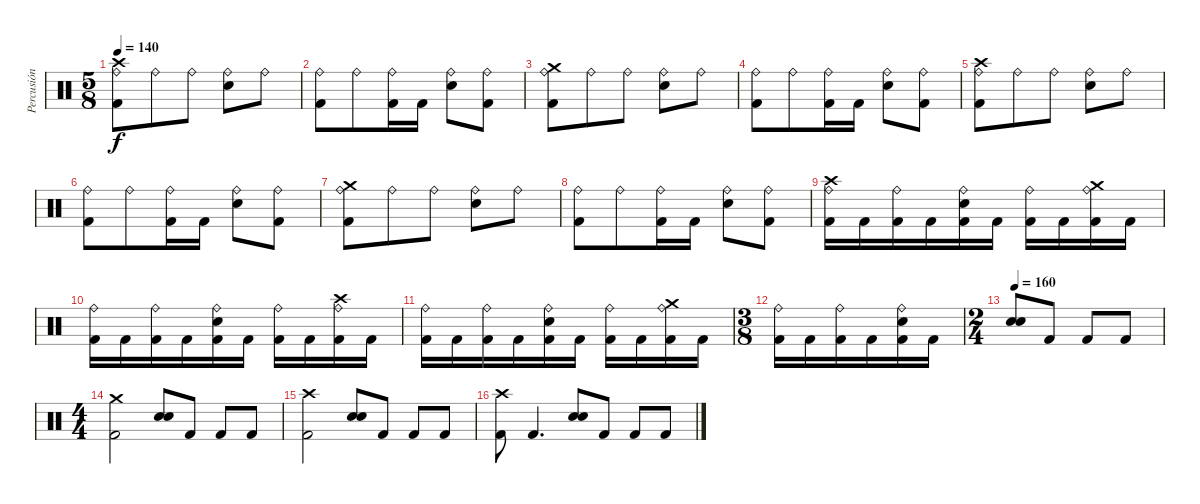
\track ("Percusión" "Percusión") {instrument percussion}
\staff {score}
\articulation defaults
\ts (5 8)
\tempo 140
\clef neutral
\ks c
("Ride (bell)" "Crash high (hit)" "Kick (hit) 2").8{dy f} "Ride (bell)".8 "Ride (bell)".8 ("Ride (bell)" "Electric Snare (hit)").8 "Ride (bell)".8 |
("Ride (bell)" "Kick (hit) 2").8 "Ride (bell)".8 ("Ride (bell)" "Kick (hit) 2").16 "Kick (hit) 2".16 ("Ride (bell)" "Electric Snare (hit)").8 ("Ride (bell)" "Kick (hit) 2").8 |
("Ride (bell)" "Crash medium (hit)" "Kick (hit) 2").8 "Ride (bell)".8 "Ride (bell)".8 ("Ride (bell)" "Electric Snare (hit)").8 "Ride (bell)".8 |
("Ride (bell)" "Kick (hit) 2").8 "Ride (bell)".8 ("Ride (bell)" "Kick (hit) 2").16 "Kick (hit) 2".16 ("Ride (bell)" "Electric Snare (hit)").8 ("Ride (bell)" "Kick (hit) 2").8 |
("Ride (bell)" "Crash high (hit)" "Kick (hit) 2").8 "Ride (bell)".8 "Ride (bell)".8 ("Ride (bell)" "Electric Snare (hit)").8 "Ride (bell)".8 |
("Ride (bell)" "Kick (hit) 2").8 "Ride (bell)".8 ("Ride (bell)" "Kick (hit) 2").16 "Kick (hit) 2".16 ("Ride (bell)" "Electric Snare (hit)").8 ("Ride (bell)" "Kick (hit) 2").8 |
("Ride (bell)" "Crash medium (hit)" "Kick (hit) 2").8 "Ride (bell)".8 "Ride (bell)".8 ("Ride (bell)" "Electric Snare (hit)").8 "Ride (bell)".8 |
("Ride (bell)" "Kick (hit) 2").8 "Ride (bell)".8 ("Ride (bell)" "Kick (hit) 2").16 "Kick (hit) 2".16 ("Ride (bell)" "Electric Snare (hit)").8 ("Ride (bell)" "Kick (hit) 2").8 |
("Ride (bell)" "Crash high (hit)" "Kick (hit) 2").16 "Kick (hit) 2".16 ("Ride (bell)" "Kick (hit) 2").16 "Kick (hit) 2".16 ("Ride (bell)" "Electric Snare (hit)" "Kick (hit) 2").16 "Kick (hit) 2".16 ("Ride (bell)" "Kick (hit) 2").16 "Kick (hit) 2".16 ("Ride (bell)" "Crash medium (hit)" "Kick (hit) 2").16 "Kick (hit) 2".16 |
("Ride (bell)" "Kick (hit) 2").16 "Kick (hit) 2".16 ("Ride (bell)" "Kick (hit) 2").16 "Kick (hit) 2".16 ("Ride (bell)" "Electric Snare (hit)" "Kick (hit) 2").16 "Kick (hit) 2".16 ("Ride (bell)" "Kick (hit) 2").16 "Kick (hit) 2".16 ("Ride (bell)" "Crash high (hit)" "Kick (hit) 2").16 "Kick (hit) 2".16 |
("Ride (bell)" "Kick (hit) 2").16 "Kick (hit) 2".16 ("Ride (bell)" "Kick (hit) 2").16 "Kick (hit) 2".16 ("Ride (bell)" "Electric Snare (hit)" "Kick (hit) 2").16 "Kick (hit) 2".16 ("Ride (bell)" "Kick (hit) 2").16 "Kick (hit) 2".16 ("Ride (bell)" "Crash medium (hit)" "Kick (hit) 2").16 "Kick (hit) 2".16 |
\ts (3 8)
("Ride (bell)" "Kick (hit) 2").16 "Kick (hit) 2".16 ("Ride (bell)" "Kick (hit) 2").16 "Kick (hit) 2".16 ("Ride (bell)" "Electric Snare (hit)" "Kick (hit) 2").16 "Kick (hit) 2".16 |
\ts (2 4)
\tempo 160
("Electric Snare (hit)" "Electric Snare (hit)").8 "Kick (hit) 2".8 "Kick (hit) 2".8 "Kick (hit) 2".8 |
\ts (4 4)
("Crash medium (hit)" "Kick (hit) 2").2 ("Electric Snare (hit)" "Electric Snare (hit)").8 "Kick (hit) 2".8 "Kick (hit) 2".8 "Kick (hit) 2".8 |
("Crash high (hit)" "Kick (hit) 2").2 ("Electric Snare (hit)" "Electric Snare (hit)").8 "Kick (hit) 2".8 "Kick (hit) 2".8 "Kick (hit) 2".8 |
("Crash high (hit)" "Kick (hit) 2").8 "Kick (hit) 2".4{d} ("Electric Snare (hit)" "Electric Snare (hit)").8 "Kick (hit) 2".8 "Kick (hit) 2".8 "Kick (hit) 2".8
